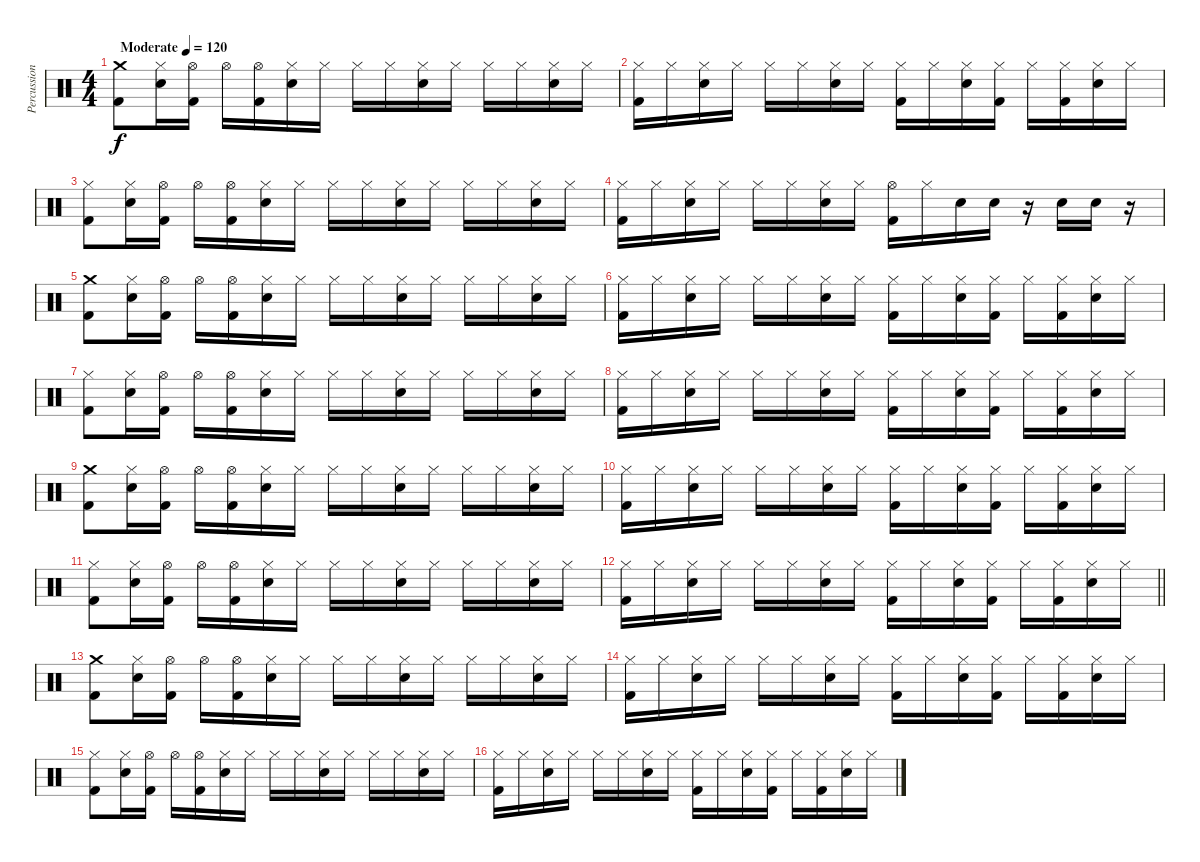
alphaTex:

\track ("Percussion" "Percussion") {instrument percussion}
\staff {score}
\articulation defaults
\ts (4 4)
\tempo (120 "Moderate")
\clef neutral
\ks c
("Crash medium (hit)" "Kick (hit) 2").8{dy f} ("Hi-Hat (closed)" "Electric Snare (hit)").16 ("Hi-Hat (open)" "Kick (hit) 2").16 "Hi-Hat (open)".16 ("Hi-Hat (open)" "Kick (hit) 2").16 ("Hi-Hat (closed)" "Electric Snare (hit)").16 "Hi-Hat (closed)".16 "Hi-Hat (closed)".16 "Hi-Hat (closed)".16 ("Hi-Hat (closed)" "Electric Snare (hit)").16 "Hi-Hat (closed)".16 "Hi-Hat (closed)".16 "Hi-Hat (closed)".16 ("Hi-Hat (closed)" "Electric Snare (hit)").16 "Hi-Hat (closed)".16 |
("Hi-Hat (closed)" "Kick (hit) 2").16 "Hi-Hat (closed)".16 ("Hi-Hat (closed)" "Electric Snare (hit)").16 "Hi-Hat (closed)".16 "Hi-Hat (closed)".16 "Hi-Hat (closed)".16 ("Hi-Hat (closed)" "Electric Snare (hit)").16 "Hi-Hat (closed)".16 ("Hi-Hat (closed)" "Kick (hit) 2").16 "Hi-Hat (closed)".16 ("Hi-Hat (closed)" "Electric Snare (hit)").16 ("Hi-Hat (closed)" "Kick (hit) 2").16 "Hi-Hat (closed)".16 ("Hi-Hat (closed)" "Kick (hit) 2").16 ("Hi-Hat (closed)" "Electric Snare (hit)").16 "Hi-Hat (closed)".16 |
("Hi-Hat (closed)" "Kick (hit) 2").8 ("Hi-Hat (closed)" "Electric Snare (hit)").16 ("Hi-Hat (open)" "Kick (hit) 2").16 "Hi-Hat (open)".16 ("Hi-Hat (open)" "Kick (hit) 2").16 ("Hi-Hat (closed)" "Electric Snare (hit)").16 "Hi-Hat (closed)".16 "Hi-Hat (closed)".16 "Hi-Hat (closed)".16 ("Hi-Hat (closed)" "Electric Snare (hit)").16 "Hi-Hat (closed)".16 "Hi-Hat (closed)".16 "Hi-Hat (closed)".16 ("Hi-Hat (closed)" "Electric Snare (hit)").16 "Hi-Hat (closed)".16 |
("Hi-Hat (closed)" "Kick (hit) 2").16 "Hi-Hat (closed)".16 ("Hi-Hat (closed)" "Electric Snare (hit)").16 "Hi-Hat (closed)".16 "Hi-Hat (closed)".16 "Hi-Hat (closed)".16 ("Hi-Hat (closed)" "Electric Snare (hit)").16 "Hi-Hat (closed)".16 ("Hi-Hat (open)" "Kick (hit) 2").16 "Hi-Hat (closed)".16 "Electric Snare (hit)".16 "Electric Snare (hit)".16 r.16 "Electric Snare (hit)".16 "Electric Snare (hit)".16 r.16 |
("Crash medium (hit)" "Kick (hit) 2").8 ("Hi-Hat (closed)" "Electric Snare (hit)").16 ("Hi-Hat (open)" "Kick (hit) 2").16 "Hi-Hat (open)".16 ("Hi-Hat (open)" "Kick (hit) 2").16 ("Hi-Hat (closed)" "Electric Snare (hit)").16 "Hi-Hat (closed)".16 "Hi-Hat (closed)".16 "Hi-Hat (closed)".16 ("Hi-Hat (closed)" "Electric Snare (hit)").16 "Hi-Hat (closed)".16 "Hi-Hat (closed)".16 "Hi-Hat (closed)".16 ("Hi-Hat (closed)" "Electric Snare (hit)").16 "Hi-Hat (closed)".16 |
("Hi-Hat (closed)" "Kick (hit) 2").16 "Hi-Hat (closed)".16 ("Hi-Hat (closed)" "Electric Snare (hit)").16 "Hi-Hat (closed)".16 "Hi-Hat (closed)".16 "Hi-Hat (closed)".16 ("Hi-Hat (closed)" "Electric Snare (hit)").16 "Hi-Hat (closed)".16 ("Hi-Hat (closed)" "Kick (hit) 2").16 "Hi-Hat (closed)".16 ("Hi-Hat (closed)" "Electric Snare (hit)").16 ("Hi-Hat (closed)" "Kick (hit) 2").16 "Hi-Hat (closed)".16 ("Hi-Hat (closed)" "Kick (hit) 2").16 ("Hi-Hat (closed)" "Electric Snare (hit)").16 "Hi-Hat (closed)".16 |
("Hi-Hat (closed)" "Kick (hit) 2").8 ("Hi-Hat (closed)" "Electric Snare (hit)").16 ("Hi-Hat (open)" "Kick (hit) 2").16 "Hi-Hat (open)".16 ("Hi-Hat (open)" "Kick (hit) 2").16 ("Hi-Hat (closed)" "Electric Snare (hit)").16 "Hi-Hat (closed)".16 "Hi-Hat (closed)".16 "Hi-Hat (closed)".16 ("Hi-Hat (closed)" "Electric Snare (hit)").16 "Hi-Hat (closed)".16 "Hi-Hat (closed)".16 "Hi-Hat (closed)".16 ("Hi-Hat (closed)" "Electric Snare (hit)").16 "Hi-Hat (closed)".16 |
("Hi-Hat (closed)" "Kick (hit) 2").16 "Hi-Hat (closed)".16 ("Hi-Hat (closed)" "Electric Snare (hit)").16 "Hi-Hat (closed)".16 "Hi-Hat (closed)".16 "Hi-Hat (closed)".16 ("Hi-Hat (closed)" "Electric Snare (hit)").16 "Hi-Hat (closed)".16 ("Hi-Hat (closed)" "Kick (hit) 2").16 "Hi-Hat (closed)".16 ("Hi-Hat (closed)" "Electric Snare (hit)").16 ("Hi-Hat (closed)" "Kick (hit) 2").16 "Hi-Hat (closed)".16 ("Hi-Hat (closed)" "Kick (hit) 2").16 ("Hi-Hat (closed)" "Electric Snare (hit)").16 "Hi-Hat (closed)".16 |
("Crash medium (hit)" "Kick (hit) 2").8 ("Hi-Hat (closed)" "Electric Snare (hit)").16 ("Hi-Hat (open)" "Kick (hit) 2").16 "Hi-Hat (open)".16 ("Hi-Hat (open)" "Kick (hit) 2").16 ("Hi-Hat (closed)" "Electric Snare (hit)").16 "Hi-Hat (closed)".16 "Hi-Hat (closed)".16 "Hi-Hat (closed)".16 ("Hi-Hat (closed)" "Electric Snare (hit)").16 "Hi-Hat (closed)".16 "Hi-Hat (closed)".16 "Hi-Hat (closed)".16 ("Hi-Hat (closed)" "Electric Snare (hit)").16 "Hi-Hat (closed)".16 |
("Hi-Hat (closed)" "Kick (hit) 2").16 "Hi-Hat (closed)".16 ("Hi-Hat (closed)" "Electric Snare (hit)").16 "Hi-Hat (closed)".16 "Hi-Hat (closed)".16 "Hi-Hat (closed)".16 ("Hi-Hat (closed)" "Electric Snare (hit)").16 "Hi-Hat (closed)".16 ("Hi-Hat (closed)" "Kick (hit) 2").16 "Hi-Hat (closed)".16 ("Hi-Hat (closed)" "Electric Snare (hit)").16 ("Hi-Hat (closed)" "Kick (hit) 2").16 "Hi-Hat (closed)".16 ("Hi-Hat (closed)" "Kick (hit) 2").16 ("Hi-Hat (closed)" "Electric Snare (hit)").16 "Hi-Hat (closed)".16 |
("Hi-Hat (closed)" "Kick (hit) 2").8 ("Hi-Hat (closed)" "Electric Snare (hit)").16 ("Hi-Hat (open)" "Kick (hit) 2").16 "Hi-Hat (open)".16 ("Hi-Hat (open)" "Kick (hit) 2").16 ("Hi-Hat (closed)" "Electric Snare (hit)").16 "Hi-Hat (closed)".16 "Hi-Hat (closed)".16 "Hi-Hat (closed)".16 ("Hi-Hat (closed)" "Electric Snare (hit)").16 "Hi-Hat (closed)".16 "Hi-Hat (closed)".16 "Hi-Hat (closed)".16 ("Hi-Hat (closed)" "Electric Snare (hit)").16 "Hi-Hat (closed)".16 |
\barLineRight lightlight
("Hi-Hat (closed)" "Kick (hit) 2").16 "Hi-Hat (closed)".16 ("Hi-Hat (closed)" "Electric Snare (hit)").16 "Hi-Hat (closed)".16 "Hi-Hat (closed)".16 "Hi-Hat (closed)".16 ("Hi-Hat (closed)" "Electric Snare (hit)").16 "Hi-Hat (closed)".16 ("Hi-Hat (closed)" "Kick (hit) 2").16 "Hi-Hat (closed)".16 ("Hi-Hat (closed)" "Electric Snare (hit)").16 ("Hi-Hat (closed)" "Kick (hit) 2").16 "Hi-Hat (closed)".16 ("Hi-Hat (closed)" "Kick (hit) 2").16 ("Hi-Hat (closed)" "Electric Snare (hit)").16 "Hi-Hat (closed)".16 |
("Crash medium (hit)" "Kick (hit) 2").8 ("Hi-Hat (closed)" "Electric Snare (hit)").16 ("Hi-Hat (open)" "Kick (hit) 2").16 "Hi-Hat (open)".16 ("Hi-Hat (open)" "Kick (hit) 2").16 ("Hi-Hat (closed)" "Electric Snare (hit)").16 "Hi-Hat (closed)".16 "Hi-Hat (closed)".16 "Hi-Hat (closed)".16 ("Hi-Hat (closed)" "Electric Snare (hit)").16 "Hi-Hat (closed)".16 "Hi-Hat (closed)".16 "Hi-Hat (closed)".16 ("Hi-Hat (closed)" "Electric Snare (hit)").16 "Hi-Hat (closed)".16 |
("Hi-Hat (closed)" "Kick (hit) 2").16 "Hi-Hat (closed)".16 ("Hi-Hat (closed)" "Electric Snare (hit)").16 "Hi-Hat (closed)".16 "Hi-Hat (closed)".16 "Hi-Hat (closed)".16 ("Hi-Hat (closed)" "Electric Snare (hit)").16 "Hi-Hat (closed)".16 ("Hi-Hat (closed)" "Kick (hit) 2").16 "Hi-Hat (closed)".16 ("Hi-Hat (closed)" "Electric Snare (hit)").16 ("Hi-Hat (closed)" "Kick (hit) 2").16 "Hi-Hat (closed)".16 ("Hi-Hat (closed)" "Kick (hit) 2").16 ("Hi-Hat (closed)" "Electric Snare (hit)").16 "Hi-Hat (closed)".16 |
("Hi-Hat (closed)" "Kick (hit) 2").8 ("Hi-Hat (closed)" "Electric Snare (hit)").16 ("Hi-Hat (open)" "Kick (hit) 2").16 "Hi-Hat (open)".16 ("Hi-Hat (open)" "Kick (hit) 2").16 ("Hi-Hat (closed)" "Electric Snare (hit)").16 "Hi-Hat (closed)".16 "Hi-Hat (closed)".16 "Hi-Hat (closed)".16 ("Hi-Hat (closed)" "Electric Snare (hit)").16 "Hi-Hat (closed)".16 "Hi-Hat (closed)".16 "Hi-Hat (closed)".16 ("Hi-Hat (closed)" "Electric Snare (hit)").16 "Hi-Hat (closed)".16 |
("Hi-Hat (closed)" "Kick (hit) 2").16 "Hi-Hat (closed)".16 ("Hi-Hat (closed)" "Electric Snare (hit)").16 "Hi-Hat (closed)".16 "Hi-Hat (closed)".16 "Hi-Hat (closed)".16 ("Hi-Hat (closed)" "Electric Snare (hit)").16 "Hi-Hat (closed)".16 ("Hi-Hat (closed)" "Kick (hit) 2").16 "Hi-Hat (closed)".16 ("Hi-Hat (closed)" "Electric Snare (hit)").16 ("Hi-Hat (closed)" "Kick (hit) 2").16 "Hi-Hat (closed)".16 ("Hi-Hat (closed)" "Kick (hit) 2").16 ("Hi-Hat (closed)" "Electric Snare (hit)").16 "Hi-Hat (closed)".16
